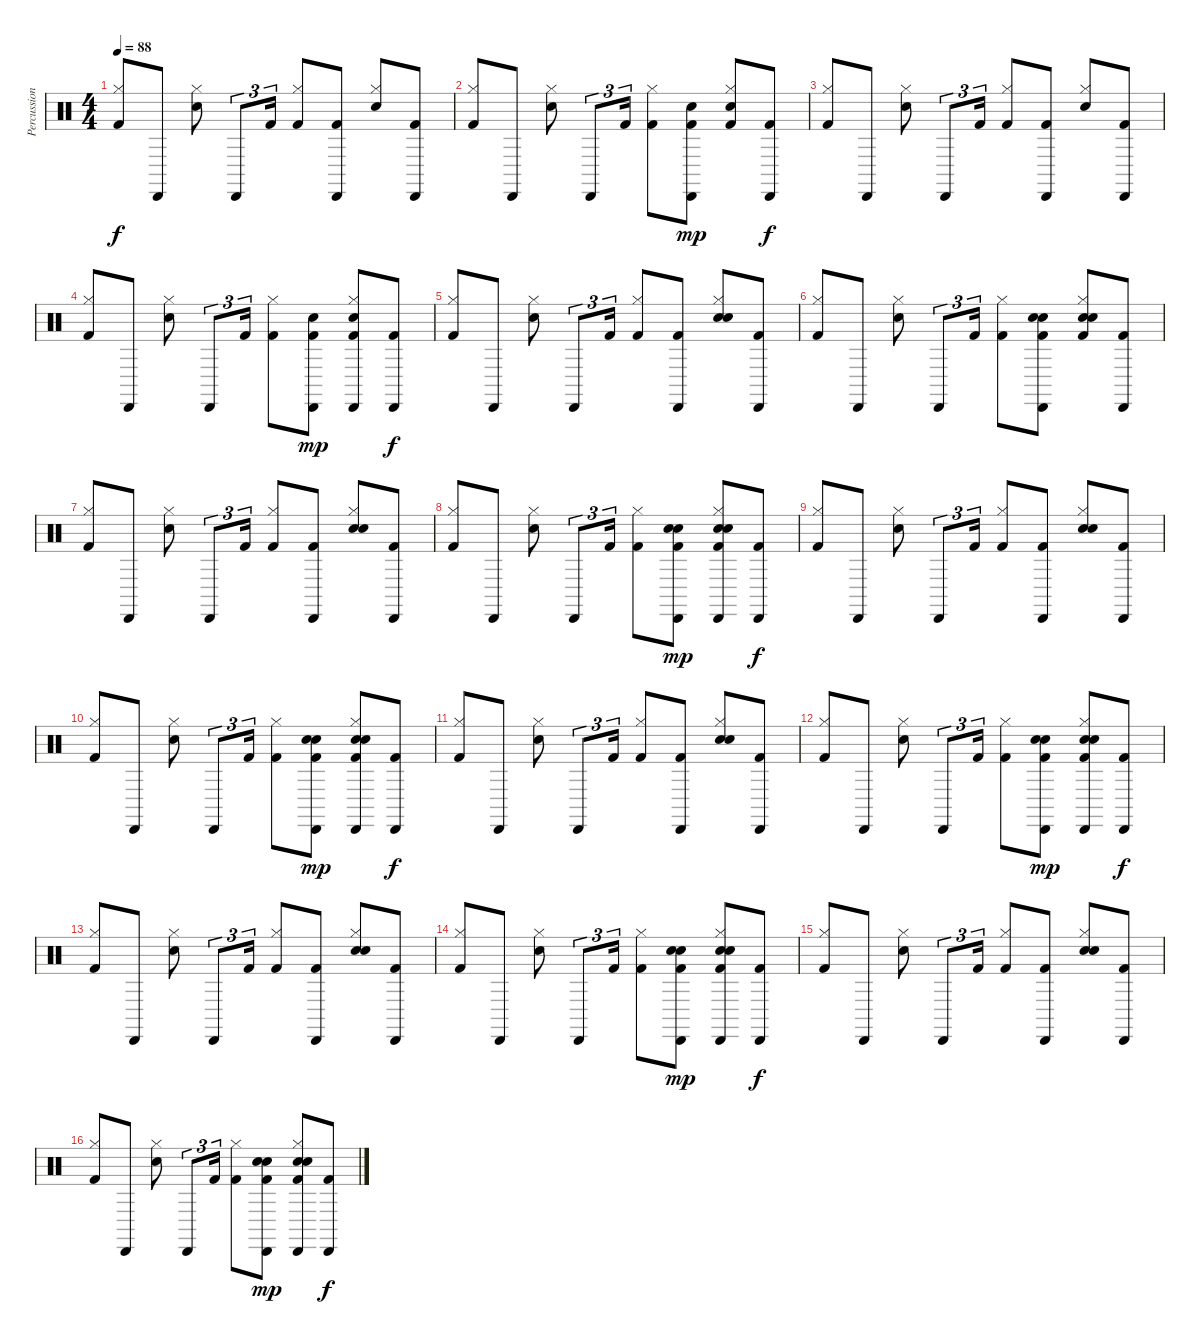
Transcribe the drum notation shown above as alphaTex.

\track ("Percussion" "Percussion") {instrument percussion}
\staff {score}
\articulation defaults
\ts (4 4)
\tempo 88
\clef neutral
\ks c
("Hi-Hat (closed)" "Kick (hit) 2").8{dy f} "Cabasa (hit)".8 ("Hi-Hat (closed)" "Electric Snare (hit)").8 "Cabasa (hit)".8{tu (3 2)} "Kick (hit) 2".16{tu (3 2)} ("Hi-Hat (closed)" "Kick (hit) 2").8 ("Cabasa (hit)" "Kick (hit) 2").8 ("Hi-Hat (closed)" "Electric Snare (hit)").8 ("Cabasa (hit)" "Kick (hit) 2").8 |
("Hi-Hat (closed)" "Kick (hit) 2").8 "Cabasa (hit)".8 ("Hi-Hat (closed)" "Electric Snare (hit)").8 "Cabasa (hit)".8{tu (3 2)} "Kick (hit) 2".16{tu (3 2)} ("Hi-Hat (closed)" "Kick (hit) 2").8 ("Cabasa (hit)" "Electric Snare (hit)" "Kick (hit) 2").8{dy mp} ("Hi-Hat (closed)" "Electric Snare (hit)" "Kick (hit) 2").8 ("Cabasa (hit)" "Kick (hit) 2").8{dy f} |
("Hi-Hat (closed)" "Kick (hit) 2").8 "Cabasa (hit)".8 ("Hi-Hat (closed)" "Electric Snare (hit)").8 "Cabasa (hit)".8{tu (3 2)} "Kick (hit) 2".16{tu (3 2)} ("Hi-Hat (closed)" "Kick (hit) 2").8 ("Cabasa (hit)" "Kick (hit) 2").8 ("Hi-Hat (closed)" "Electric Snare (hit)").8 ("Cabasa (hit)" "Kick (hit) 2").8 |
("Hi-Hat (closed)" "Kick (hit) 2").8 "Cabasa (hit)".8 ("Hi-Hat (closed)" "Electric Snare (hit)").8 "Cabasa (hit)".8{tu (3 2)} "Kick (hit) 2".16{tu (3 2)} ("Hi-Hat (closed)" "Kick (hit) 2").8 ("Cabasa (hit)" "Electric Snare (hit)" "Kick (hit) 2").8{dy mp} ("Cabasa (hit)" "Hi-Hat (closed)" "Electric Snare (hit)" "Kick (hit) 2").8 ("Cabasa (hit)" "Kick (hit) 2").8{dy f} |
("Hi-Hat (closed)" "Kick (hit) 2").8 "Cabasa (hit)".8 ("Hi-Hat (closed)" "Electric Snare (hit)").8 "Cabasa (hit)".8{tu (3 2)} "Kick (hit) 2".16{tu (3 2)} ("Hi-Hat (closed)" "Kick (hit) 2").8 ("Cabasa (hit)" "Kick (hit) 2").8 ("Hi-Hat (closed)" "Electric Snare (hit)" "Hand Clap (hit)").8 ("Cabasa (hit)" "Kick (hit) 2").8 |
("Hi-Hat (closed)" "Kick (hit) 2").8 "Cabasa (hit)".8 ("Hi-Hat (closed)" "Electric Snare (hit)").8 "Cabasa (hit)".8{tu (3 2)} "Kick (hit) 2".16{tu (3 2)} ("Hi-Hat (closed)" "Kick (hit) 2").8 ("Cabasa (hit)" "Electric Snare (hit)" "Hand Clap (hit)" "Kick (hit) 2").8 ("Hi-Hat (closed)" "Electric Snare (hit)" "Hand Clap (hit)" "Kick (hit) 2").8 ("Cabasa (hit)" "Kick (hit) 2").8 |
("Hi-Hat (closed)" "Kick (hit) 2").8 "Cabasa (hit)".8 ("Hi-Hat (closed)" "Electric Snare (hit)").8 "Cabasa (hit)".8{tu (3 2)} "Kick (hit) 2".16{tu (3 2)} ("Hi-Hat (closed)" "Kick (hit) 2").8 ("Cabasa (hit)" "Kick (hit) 2").8 ("Hi-Hat (closed)" "Electric Snare (hit)" "Hand Clap (hit)").8 ("Cabasa (hit)" "Kick (hit) 2").8 |
("Hi-Hat (closed)" "Kick (hit) 2").8 "Cabasa (hit)".8 ("Hi-Hat (closed)" "Electric Snare (hit)").8 "Cabasa (hit)".8{tu (3 2)} "Kick (hit) 2".16{tu (3 2)} ("Hi-Hat (closed)" "Kick (hit) 2").8 ("Cabasa (hit)" "Electric Snare (hit)" "Hand Clap (hit)" "Kick (hit) 2").8{dy mp} ("Cabasa (hit)" "Hi-Hat (closed)" "Electric Snare (hit)" "Hand Clap (hit)" "Kick (hit) 2").8 ("Cabasa (hit)" "Kick (hit) 2").8{dy f} |
("Hi-Hat (closed)" "Kick (hit) 2").8 "Cabasa (hit)".8 ("Hi-Hat (closed)" "Electric Snare (hit)").8 "Cabasa (hit)".8{tu (3 2)} "Kick (hit) 2".16{tu (3 2)} ("Hi-Hat (closed)" "Kick (hit) 2").8 ("Cabasa (hit)" "Kick (hit) 2").8 ("Hi-Hat (closed)" "Electric Snare (hit)" "Hand Clap (hit)").8 ("Cabasa (hit)" "Kick (hit) 2").8 |
("Hi-Hat (closed)" "Kick (hit) 2").8 "Cabasa (hit)".8 ("Hi-Hat (closed)" "Electric Snare (hit)").8 "Cabasa (hit)".8{tu (3 2)} "Kick (hit) 2".16{tu (3 2)} ("Hi-Hat (closed)" "Kick (hit) 2").8 ("Cabasa (hit)" "Electric Snare (hit)" "Hand Clap (hit)" "Kick (hit) 2").8{dy mp} ("Cabasa (hit)" "Hi-Hat (closed)" "Electric Snare (hit)" "Hand Clap (hit)" "Kick (hit) 2").8 ("Cabasa (hit)" "Kick (hit) 2").8{dy f} |
("Hi-Hat (closed)" "Kick (hit) 2").8 "Cabasa (hit)".8 ("Hi-Hat (closed)" "Electric Snare (hit)").8 "Cabasa (hit)".8{tu (3 2)} "Kick (hit) 2".16{tu (3 2)} ("Hi-Hat (closed)" "Kick (hit) 2").8 ("Cabasa (hit)" "Kick (hit) 2").8 ("Hi-Hat (closed)" "Electric Snare (hit)" "Hand Clap (hit)").8 ("Cabasa (hit)" "Kick (hit) 2").8 |
("Hi-Hat (closed)" "Kick (hit) 2").8 "Cabasa (hit)".8 ("Hi-Hat (closed)" "Electric Snare (hit)").8 "Cabasa (hit)".8{tu (3 2)} "Kick (hit) 2".16{tu (3 2)} ("Hi-Hat (closed)" "Kick (hit) 2").8 ("Cabasa (hit)" "Electric Snare (hit)" "Hand Clap (hit)" "Kick (hit) 2").8{dy mp} ("Cabasa (hit)" "Hi-Hat (closed)" "Electric Snare (hit)" "Hand Clap (hit)" "Kick (hit) 2").8 ("Cabasa (hit)" "Kick (hit) 2").8{dy f} |
("Hi-Hat (closed)" "Kick (hit) 2").8 "Cabasa (hit)".8 ("Hi-Hat (closed)" "Electric Snare (hit)").8 "Cabasa (hit)".8{tu (3 2)} "Kick (hit) 2".16{tu (3 2)} ("Hi-Hat (closed)" "Kick (hit) 2").8 ("Cabasa (hit)" "Kick (hit) 2").8 ("Hi-Hat (closed)" "Electric Snare (hit)" "Hand Clap (hit)").8 ("Cabasa (hit)" "Kick (hit) 2").8 |
("Hi-Hat (closed)" "Kick (hit) 2").8 "Cabasa (hit)".8 ("Hi-Hat (closed)" "Electric Snare (hit)").8 "Cabasa (hit)".8{tu (3 2)} "Kick (hit) 2".16{tu (3 2)} ("Hi-Hat (closed)" "Kick (hit) 2").8 ("Cabasa (hit)" "Electric Snare (hit)" "Hand Clap (hit)" "Kick (hit) 2").8{dy mp} ("Cabasa (hit)" "Hi-Hat (closed)" "Electric Snare (hit)" "Hand Clap (hit)" "Kick (hit) 2").8 ("Cabasa (hit)" "Kick (hit) 2").8{dy f} |
("Hi-Hat (closed)" "Kick (hit) 2").8 "Cabasa (hit)".8 ("Hi-Hat (closed)" "Electric Snare (hit)").8 "Cabasa (hit)".8{tu (3 2)} "Kick (hit) 2".16{tu (3 2)} ("Hi-Hat (closed)" "Kick (hit) 2").8 ("Cabasa (hit)" "Kick (hit) 2").8 ("Hi-Hat (closed)" "Electric Snare (hit)" "Hand Clap (hit)").8 ("Cabasa (hit)" "Kick (hit) 2").8 |
("Hi-Hat (closed)" "Kick (hit) 2").8 "Cabasa (hit)".8 ("Hi-Hat (closed)" "Electric Snare (hit)").8 "Cabasa (hit)".8{tu (3 2)} "Kick (hit) 2".16{tu (3 2)} ("Hi-Hat (closed)" "Kick (hit) 2").8 ("Cabasa (hit)" "Electric Snare (hit)" "Hand Clap (hit)" "Kick (hit) 2").8{dy mp} ("Cabasa (hit)" "Hi-Hat (closed)" "Electric Snare (hit)" "Hand Clap (hit)" "Kick (hit) 2").8 ("Cabasa (hit)" "Kick (hit) 2").8{dy f}
